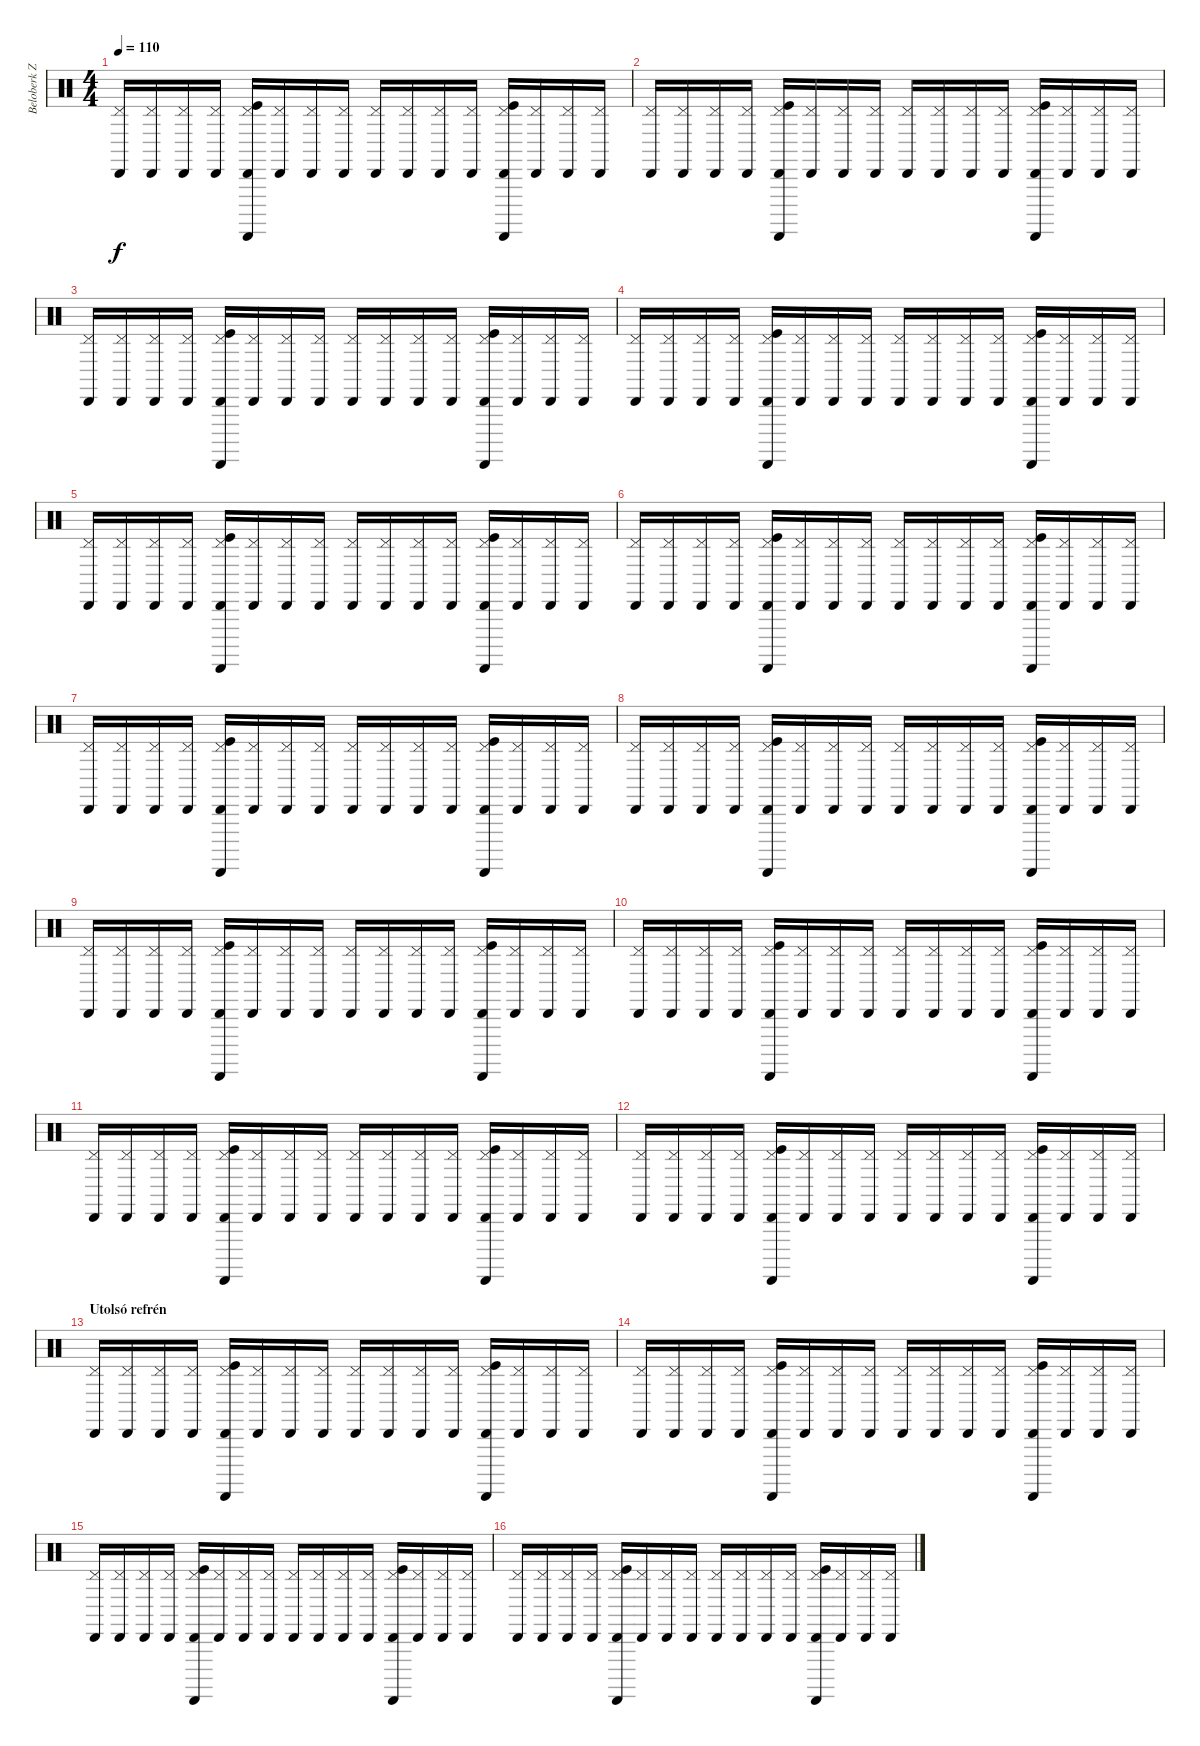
\track ("Beloberk Zsolt" "Beloberk Z") {instrument percussion}
\staff {score}
\articulation defaults
\ts (4 4)
\tempo 110
\clef neutral
\ks c
("Cabasa (hit)" "Pedal Hi-Hat (hit)").16{dy f} ("Cabasa (hit)" "Pedal Hi-Hat (hit)").16 ("Cabasa (hit)" "Pedal Hi-Hat (hit)").16 ("Cabasa (hit)" "Pedal Hi-Hat (hit)").16 ("Cabasa (hit)" "Guiro (scrap-return)" "Pedal Hi-Hat (hit)" "Kick (hit)").16 ("Cabasa (hit)" "Pedal Hi-Hat (hit)").16 ("Cabasa (hit)" "Pedal Hi-Hat (hit)").16 ("Cabasa (hit)" "Pedal Hi-Hat (hit)").16 ("Cabasa (hit)" "Pedal Hi-Hat (hit)").16 ("Cabasa (hit)" "Pedal Hi-Hat (hit)").16 ("Cabasa (hit)" "Pedal Hi-Hat (hit)").16 ("Cabasa (hit)" "Pedal Hi-Hat (hit)").16 ("Cabasa (hit)" "Guiro (scrap-return)" "Pedal Hi-Hat (hit)" "Kick (hit)").16 ("Cabasa (hit)" "Pedal Hi-Hat (hit)").16 ("Cabasa (hit)" "Pedal Hi-Hat (hit)").16 ("Cabasa (hit)" "Pedal Hi-Hat (hit)").16 |
("Cabasa (hit)" "Pedal Hi-Hat (hit)").16 ("Cabasa (hit)" "Pedal Hi-Hat (hit)").16 ("Cabasa (hit)" "Pedal Hi-Hat (hit)").16 ("Cabasa (hit)" "Pedal Hi-Hat (hit)").16 ("Cabasa (hit)" "Guiro (scrap-return)" "Pedal Hi-Hat (hit)" "Kick (hit)").16 ("Cabasa (hit)" "Pedal Hi-Hat (hit)").16 ("Cabasa (hit)" "Pedal Hi-Hat (hit)").16 ("Cabasa (hit)" "Pedal Hi-Hat (hit)").16 ("Cabasa (hit)" "Pedal Hi-Hat (hit)").16 ("Cabasa (hit)" "Pedal Hi-Hat (hit)").16 ("Cabasa (hit)" "Pedal Hi-Hat (hit)").16 ("Cabasa (hit)" "Pedal Hi-Hat (hit)").16 ("Cabasa (hit)" "Guiro (scrap-return)" "Pedal Hi-Hat (hit)" "Kick (hit)").16 ("Cabasa (hit)" "Pedal Hi-Hat (hit)").16 ("Cabasa (hit)" "Pedal Hi-Hat (hit)").16 ("Cabasa (hit)" "Pedal Hi-Hat (hit)").16 |
("Cabasa (hit)" "Pedal Hi-Hat (hit)").16 ("Cabasa (hit)" "Pedal Hi-Hat (hit)").16 ("Cabasa (hit)" "Pedal Hi-Hat (hit)").16 ("Cabasa (hit)" "Pedal Hi-Hat (hit)").16 ("Cabasa (hit)" "Guiro (scrap-return)" "Pedal Hi-Hat (hit)" "Kick (hit)").16 ("Cabasa (hit)" "Pedal Hi-Hat (hit)").16 ("Cabasa (hit)" "Pedal Hi-Hat (hit)").16 ("Cabasa (hit)" "Pedal Hi-Hat (hit)").16 ("Cabasa (hit)" "Pedal Hi-Hat (hit)").16 ("Cabasa (hit)" "Pedal Hi-Hat (hit)").16 ("Cabasa (hit)" "Pedal Hi-Hat (hit)").16 ("Cabasa (hit)" "Pedal Hi-Hat (hit)").16 ("Cabasa (hit)" "Guiro (scrap-return)" "Pedal Hi-Hat (hit)" "Kick (hit)").16 ("Cabasa (hit)" "Pedal Hi-Hat (hit)").16 ("Cabasa (hit)" "Pedal Hi-Hat (hit)").16 ("Cabasa (hit)" "Pedal Hi-Hat (hit)").16 |
("Cabasa (hit)" "Pedal Hi-Hat (hit)").16 ("Cabasa (hit)" "Pedal Hi-Hat (hit)").16 ("Cabasa (hit)" "Pedal Hi-Hat (hit)").16 ("Cabasa (hit)" "Pedal Hi-Hat (hit)").16 ("Cabasa (hit)" "Guiro (scrap-return)" "Pedal Hi-Hat (hit)" "Kick (hit)").16 ("Cabasa (hit)" "Pedal Hi-Hat (hit)").16 ("Cabasa (hit)" "Pedal Hi-Hat (hit)").16 ("Cabasa (hit)" "Pedal Hi-Hat (hit)").16 ("Cabasa (hit)" "Pedal Hi-Hat (hit)").16 ("Cabasa (hit)" "Pedal Hi-Hat (hit)").16 ("Cabasa (hit)" "Pedal Hi-Hat (hit)").16 ("Cabasa (hit)" "Pedal Hi-Hat (hit)").16 ("Cabasa (hit)" "Guiro (scrap-return)" "Pedal Hi-Hat (hit)" "Kick (hit)").16 ("Cabasa (hit)" "Pedal Hi-Hat (hit)").16 ("Cabasa (hit)" "Pedal Hi-Hat (hit)").16 ("Cabasa (hit)" "Pedal Hi-Hat (hit)").16 |
("Cabasa (hit)" "Pedal Hi-Hat (hit)").16 ("Cabasa (hit)" "Pedal Hi-Hat (hit)").16 ("Cabasa (hit)" "Pedal Hi-Hat (hit)").16 ("Cabasa (hit)" "Pedal Hi-Hat (hit)").16 ("Cabasa (hit)" "Guiro (scrap-return)" "Pedal Hi-Hat (hit)" "Kick (hit)").16 ("Cabasa (hit)" "Pedal Hi-Hat (hit)").16 ("Cabasa (hit)" "Pedal Hi-Hat (hit)").16 ("Cabasa (hit)" "Pedal Hi-Hat (hit)").16 ("Cabasa (hit)" "Pedal Hi-Hat (hit)").16 ("Cabasa (hit)" "Pedal Hi-Hat (hit)").16 ("Cabasa (hit)" "Pedal Hi-Hat (hit)").16 ("Cabasa (hit)" "Pedal Hi-Hat (hit)").16 ("Cabasa (hit)" "Guiro (scrap-return)" "Pedal Hi-Hat (hit)" "Kick (hit)").16 ("Cabasa (hit)" "Pedal Hi-Hat (hit)").16 ("Cabasa (hit)" "Pedal Hi-Hat (hit)").16 ("Cabasa (hit)" "Pedal Hi-Hat (hit)").16 |
("Cabasa (hit)" "Pedal Hi-Hat (hit)").16 ("Cabasa (hit)" "Pedal Hi-Hat (hit)").16 ("Cabasa (hit)" "Pedal Hi-Hat (hit)").16 ("Cabasa (hit)" "Pedal Hi-Hat (hit)").16 ("Cabasa (hit)" "Guiro (scrap-return)" "Pedal Hi-Hat (hit)" "Kick (hit)").16 ("Cabasa (hit)" "Pedal Hi-Hat (hit)").16 ("Cabasa (hit)" "Pedal Hi-Hat (hit)").16 ("Cabasa (hit)" "Pedal Hi-Hat (hit)").16 ("Cabasa (hit)" "Pedal Hi-Hat (hit)").16 ("Cabasa (hit)" "Pedal Hi-Hat (hit)").16 ("Cabasa (hit)" "Pedal Hi-Hat (hit)").16 ("Cabasa (hit)" "Pedal Hi-Hat (hit)").16 ("Cabasa (hit)" "Guiro (scrap-return)" "Pedal Hi-Hat (hit)" "Kick (hit)").16 ("Cabasa (hit)" "Pedal Hi-Hat (hit)").16 ("Cabasa (hit)" "Pedal Hi-Hat (hit)").16 ("Cabasa (hit)" "Pedal Hi-Hat (hit)").16 |
("Cabasa (hit)" "Pedal Hi-Hat (hit)").16 ("Cabasa (hit)" "Pedal Hi-Hat (hit)").16 ("Cabasa (hit)" "Pedal Hi-Hat (hit)").16 ("Cabasa (hit)" "Pedal Hi-Hat (hit)").16 ("Cabasa (hit)" "Guiro (scrap-return)" "Pedal Hi-Hat (hit)" "Kick (hit)").16 ("Cabasa (hit)" "Pedal Hi-Hat (hit)").16 ("Cabasa (hit)" "Pedal Hi-Hat (hit)").16 ("Cabasa (hit)" "Pedal Hi-Hat (hit)").16 ("Cabasa (hit)" "Pedal Hi-Hat (hit)").16 ("Cabasa (hit)" "Pedal Hi-Hat (hit)").16 ("Cabasa (hit)" "Pedal Hi-Hat (hit)").16 ("Cabasa (hit)" "Pedal Hi-Hat (hit)").16 ("Cabasa (hit)" "Guiro (scrap-return)" "Pedal Hi-Hat (hit)" "Kick (hit)").16 ("Cabasa (hit)" "Pedal Hi-Hat (hit)").16 ("Cabasa (hit)" "Pedal Hi-Hat (hit)").16 ("Cabasa (hit)" "Pedal Hi-Hat (hit)").16 |
("Cabasa (hit)" "Pedal Hi-Hat (hit)").16 ("Cabasa (hit)" "Pedal Hi-Hat (hit)").16 ("Cabasa (hit)" "Pedal Hi-Hat (hit)").16 ("Cabasa (hit)" "Pedal Hi-Hat (hit)").16 ("Cabasa (hit)" "Guiro (scrap-return)" "Pedal Hi-Hat (hit)" "Kick (hit)").16 ("Cabasa (hit)" "Pedal Hi-Hat (hit)").16 ("Cabasa (hit)" "Pedal Hi-Hat (hit)").16 ("Cabasa (hit)" "Pedal Hi-Hat (hit)").16 ("Cabasa (hit)" "Pedal Hi-Hat (hit)").16 ("Cabasa (hit)" "Pedal Hi-Hat (hit)").16 ("Cabasa (hit)" "Pedal Hi-Hat (hit)").16 ("Cabasa (hit)" "Pedal Hi-Hat (hit)").16 ("Cabasa (hit)" "Guiro (scrap-return)" "Pedal Hi-Hat (hit)" "Kick (hit)").16 ("Cabasa (hit)" "Pedal Hi-Hat (hit)").16 ("Cabasa (hit)" "Pedal Hi-Hat (hit)").16 ("Cabasa (hit)" "Pedal Hi-Hat (hit)").16 |
("Cabasa (hit)" "Pedal Hi-Hat (hit)").16 ("Cabasa (hit)" "Pedal Hi-Hat (hit)").16 ("Cabasa (hit)" "Pedal Hi-Hat (hit)").16 ("Cabasa (hit)" "Pedal Hi-Hat (hit)").16 ("Cabasa (hit)" "Guiro (scrap-return)" "Pedal Hi-Hat (hit)" "Kick (hit)").16 ("Cabasa (hit)" "Pedal Hi-Hat (hit)").16 ("Cabasa (hit)" "Pedal Hi-Hat (hit)").16 ("Cabasa (hit)" "Pedal Hi-Hat (hit)").16 ("Cabasa (hit)" "Pedal Hi-Hat (hit)").16 ("Cabasa (hit)" "Pedal Hi-Hat (hit)").16 ("Cabasa (hit)" "Pedal Hi-Hat (hit)").16 ("Cabasa (hit)" "Pedal Hi-Hat (hit)").16 ("Cabasa (hit)" "Guiro (scrap-return)" "Pedal Hi-Hat (hit)" "Kick (hit)").16 ("Cabasa (hit)" "Pedal Hi-Hat (hit)").16 ("Cabasa (hit)" "Pedal Hi-Hat (hit)").16 ("Cabasa (hit)" "Pedal Hi-Hat (hit)").16 |
("Cabasa (hit)" "Pedal Hi-Hat (hit)").16 ("Cabasa (hit)" "Pedal Hi-Hat (hit)").16 ("Cabasa (hit)" "Pedal Hi-Hat (hit)").16 ("Cabasa (hit)" "Pedal Hi-Hat (hit)").16 ("Cabasa (hit)" "Guiro (scrap-return)" "Pedal Hi-Hat (hit)" "Kick (hit)").16 ("Cabasa (hit)" "Pedal Hi-Hat (hit)").16 ("Cabasa (hit)" "Pedal Hi-Hat (hit)").16 ("Cabasa (hit)" "Pedal Hi-Hat (hit)").16 ("Cabasa (hit)" "Pedal Hi-Hat (hit)").16 ("Cabasa (hit)" "Pedal Hi-Hat (hit)").16 ("Cabasa (hit)" "Pedal Hi-Hat (hit)").16 ("Cabasa (hit)" "Pedal Hi-Hat (hit)").16 ("Cabasa (hit)" "Guiro (scrap-return)" "Pedal Hi-Hat (hit)" "Kick (hit)").16 ("Cabasa (hit)" "Pedal Hi-Hat (hit)").16 ("Cabasa (hit)" "Pedal Hi-Hat (hit)").16 ("Cabasa (hit)" "Pedal Hi-Hat (hit)").16 |
("Cabasa (hit)" "Pedal Hi-Hat (hit)").16 ("Cabasa (hit)" "Pedal Hi-Hat (hit)").16 ("Cabasa (hit)" "Pedal Hi-Hat (hit)").16 ("Cabasa (hit)" "Pedal Hi-Hat (hit)").16 ("Cabasa (hit)" "Guiro (scrap-return)" "Pedal Hi-Hat (hit)" "Kick (hit)").16 ("Cabasa (hit)" "Pedal Hi-Hat (hit)").16 ("Cabasa (hit)" "Pedal Hi-Hat (hit)").16 ("Cabasa (hit)" "Pedal Hi-Hat (hit)").16 ("Cabasa (hit)" "Pedal Hi-Hat (hit)").16 ("Cabasa (hit)" "Pedal Hi-Hat (hit)").16 ("Cabasa (hit)" "Pedal Hi-Hat (hit)").16 ("Cabasa (hit)" "Pedal Hi-Hat (hit)").16 ("Cabasa (hit)" "Guiro (scrap-return)" "Pedal Hi-Hat (hit)" "Kick (hit)").16 ("Cabasa (hit)" "Pedal Hi-Hat (hit)").16 ("Cabasa (hit)" "Pedal Hi-Hat (hit)").16 ("Cabasa (hit)" "Pedal Hi-Hat (hit)").16 |
("Cabasa (hit)" "Pedal Hi-Hat (hit)").16 ("Cabasa (hit)" "Pedal Hi-Hat (hit)").16 ("Cabasa (hit)" "Pedal Hi-Hat (hit)").16 ("Cabasa (hit)" "Pedal Hi-Hat (hit)").16 ("Cabasa (hit)" "Guiro (scrap-return)" "Pedal Hi-Hat (hit)" "Kick (hit)").16 ("Cabasa (hit)" "Pedal Hi-Hat (hit)").16 ("Cabasa (hit)" "Pedal Hi-Hat (hit)").16 ("Cabasa (hit)" "Pedal Hi-Hat (hit)").16 ("Cabasa (hit)" "Pedal Hi-Hat (hit)").16 ("Cabasa (hit)" "Pedal Hi-Hat (hit)").16 ("Cabasa (hit)" "Pedal Hi-Hat (hit)").16 ("Cabasa (hit)" "Pedal Hi-Hat (hit)").16 ("Cabasa (hit)" "Guiro (scrap-return)" "Pedal Hi-Hat (hit)" "Kick (hit)").16 ("Cabasa (hit)" "Pedal Hi-Hat (hit)").16 ("Cabasa (hit)" "Pedal Hi-Hat (hit)").16 ("Cabasa (hit)" "Pedal Hi-Hat (hit)").16 |
\section ("" "Utolsó refrén")
("Cabasa (hit)" "Pedal Hi-Hat (hit)").16 ("Cabasa (hit)" "Pedal Hi-Hat (hit)").16 ("Cabasa (hit)" "Pedal Hi-Hat (hit)").16 ("Cabasa (hit)" "Pedal Hi-Hat (hit)").16 ("Cabasa (hit)" "Guiro (scrap-return)" "Pedal Hi-Hat (hit)" "Kick (hit)").16 ("Cabasa (hit)" "Pedal Hi-Hat (hit)").16 ("Cabasa (hit)" "Pedal Hi-Hat (hit)").16 ("Cabasa (hit)" "Pedal Hi-Hat (hit)").16 ("Cabasa (hit)" "Pedal Hi-Hat (hit)").16 ("Cabasa (hit)" "Pedal Hi-Hat (hit)").16 ("Cabasa (hit)" "Pedal Hi-Hat (hit)").16 ("Cabasa (hit)" "Pedal Hi-Hat (hit)").16 ("Cabasa (hit)" "Guiro (scrap-return)" "Pedal Hi-Hat (hit)" "Kick (hit)").16 ("Cabasa (hit)" "Pedal Hi-Hat (hit)").16 ("Cabasa (hit)" "Pedal Hi-Hat (hit)").16 ("Cabasa (hit)" "Pedal Hi-Hat (hit)").16 |
("Cabasa (hit)" "Pedal Hi-Hat (hit)").16 ("Cabasa (hit)" "Pedal Hi-Hat (hit)").16 ("Cabasa (hit)" "Pedal Hi-Hat (hit)").16 ("Cabasa (hit)" "Pedal Hi-Hat (hit)").16 ("Cabasa (hit)" "Guiro (scrap-return)" "Pedal Hi-Hat (hit)" "Kick (hit)").16 ("Cabasa (hit)" "Pedal Hi-Hat (hit)").16 ("Cabasa (hit)" "Pedal Hi-Hat (hit)").16 ("Cabasa (hit)" "Pedal Hi-Hat (hit)").16 ("Cabasa (hit)" "Pedal Hi-Hat (hit)").16 ("Cabasa (hit)" "Pedal Hi-Hat (hit)").16 ("Cabasa (hit)" "Pedal Hi-Hat (hit)").16 ("Cabasa (hit)" "Pedal Hi-Hat (hit)").16 ("Cabasa (hit)" "Guiro (scrap-return)" "Pedal Hi-Hat (hit)" "Kick (hit)").16 ("Cabasa (hit)" "Pedal Hi-Hat (hit)").16 ("Cabasa (hit)" "Pedal Hi-Hat (hit)").16 ("Cabasa (hit)" "Pedal Hi-Hat (hit)").16 |
("Cabasa (hit)" "Pedal Hi-Hat (hit)").16 ("Cabasa (hit)" "Pedal Hi-Hat (hit)").16 ("Cabasa (hit)" "Pedal Hi-Hat (hit)").16 ("Cabasa (hit)" "Pedal Hi-Hat (hit)").16 ("Cabasa (hit)" "Guiro (scrap-return)" "Pedal Hi-Hat (hit)" "Kick (hit)").16 ("Cabasa (hit)" "Pedal Hi-Hat (hit)").16 ("Cabasa (hit)" "Pedal Hi-Hat (hit)").16 ("Cabasa (hit)" "Pedal Hi-Hat (hit)").16 ("Cabasa (hit)" "Pedal Hi-Hat (hit)").16 ("Cabasa (hit)" "Pedal Hi-Hat (hit)").16 ("Cabasa (hit)" "Pedal Hi-Hat (hit)").16 ("Cabasa (hit)" "Pedal Hi-Hat (hit)").16 ("Cabasa (hit)" "Guiro (scrap-return)" "Pedal Hi-Hat (hit)" "Kick (hit)").16 ("Cabasa (hit)" "Pedal Hi-Hat (hit)").16 ("Cabasa (hit)" "Pedal Hi-Hat (hit)").16 ("Cabasa (hit)" "Pedal Hi-Hat (hit)").16 |
("Cabasa (hit)" "Pedal Hi-Hat (hit)").16 ("Cabasa (hit)" "Pedal Hi-Hat (hit)").16 ("Cabasa (hit)" "Pedal Hi-Hat (hit)").16 ("Cabasa (hit)" "Pedal Hi-Hat (hit)").16 ("Cabasa (hit)" "Guiro (scrap-return)" "Pedal Hi-Hat (hit)" "Kick (hit)").16 ("Cabasa (hit)" "Pedal Hi-Hat (hit)").16 ("Cabasa (hit)" "Pedal Hi-Hat (hit)").16 ("Cabasa (hit)" "Pedal Hi-Hat (hit)").16 ("Cabasa (hit)" "Pedal Hi-Hat (hit)").16 ("Cabasa (hit)" "Pedal Hi-Hat (hit)").16 ("Cabasa (hit)" "Pedal Hi-Hat (hit)").16 ("Cabasa (hit)" "Pedal Hi-Hat (hit)").16 ("Cabasa (hit)" "Guiro (scrap-return)" "Pedal Hi-Hat (hit)" "Kick (hit)").16 ("Cabasa (hit)" "Pedal Hi-Hat (hit)").16 ("Cabasa (hit)" "Pedal Hi-Hat (hit)").16 ("Cabasa (hit)" "Pedal Hi-Hat (hit)").16
